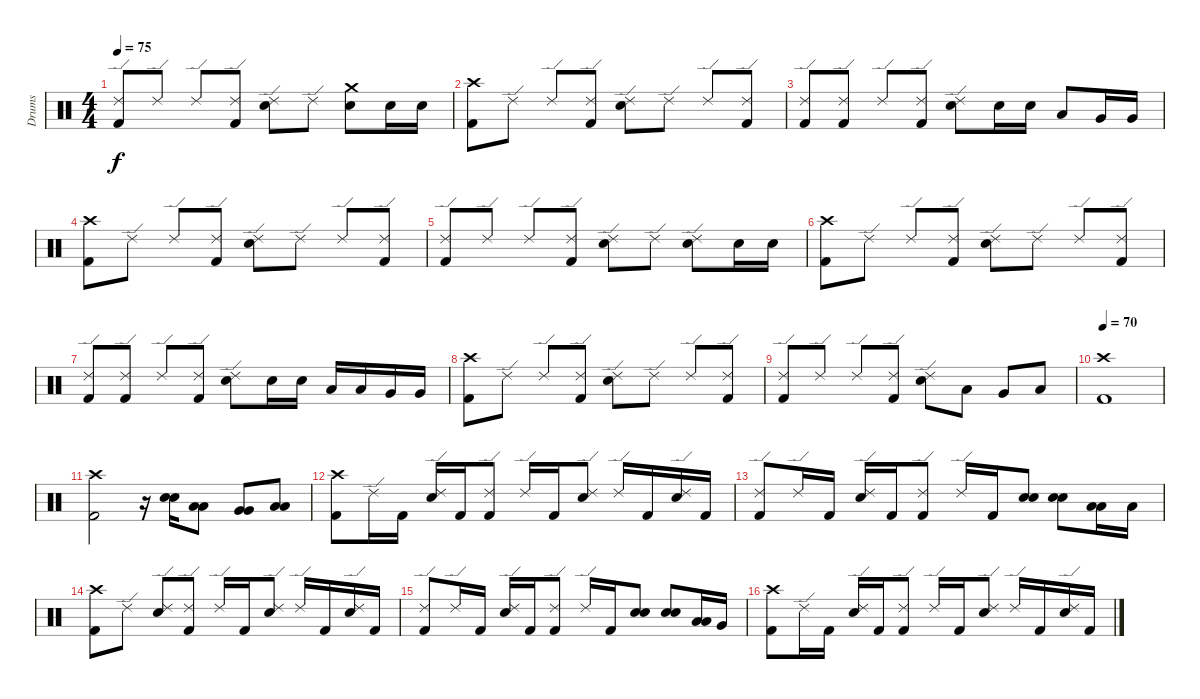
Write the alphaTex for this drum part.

\track ("Drums" "Drums") {instrument percussion}
\staff {score}
\articulation defaults
\ts (4 4)
\tempo 75
\clef neutral
\ks c
("Ride (edge) 2" "Kick (hit) 2").8{dy f} "Ride (edge) 2".8 "Ride (edge) 2".8 ("Ride (edge) 2" "Kick (hit) 2").8 ("Ride (edge) 2" "Electric Snare (hit)").8 "Ride (edge) 2".8 ("Crash medium (hit)" "Electric Snare (hit)").8 "Electric Snare (hit)".16 "Electric Snare (hit)".16 |
("Crash high (hit)" "Kick (hit) 2").8 "Ride (edge) 2".8 "Ride (edge) 2".8 ("Ride (edge) 2" "Kick (hit) 2").8 ("Ride (edge) 2" "Electric Snare (hit)").8 "Ride (edge) 2".8 "Ride (edge) 2".8 ("Ride (edge) 2" "Kick (hit) 2").8 |
("Ride (edge) 2" "Kick (hit) 2").8 ("Ride (edge) 2" "Kick (hit) 2").8 "Ride (edge) 2".8 ("Ride (edge) 2" "Kick (hit) 2").8 ("Ride (edge) 2" "Electric Snare (hit)").8 "Electric Snare (hit)".16 "Electric Snare (hit)".16 "Low Tom (hit)".8 "Very Low Tom (hit)".16 "Very Low Tom (hit)".16 |
("Crash high (hit)" "Kick (hit) 2").8 "Ride (edge) 2".8 "Ride (edge) 2".8 ("Ride (edge) 2" "Kick (hit) 2").8 ("Ride (edge) 2" "Electric Snare (hit)").8 "Ride (edge) 2".8 "Ride (edge) 2".8 ("Ride (edge) 2" "Kick (hit) 2").8 |
("Ride (edge) 2" "Kick (hit) 2").8 "Ride (edge) 2".8 "Ride (edge) 2".8 ("Ride (edge) 2" "Kick (hit) 2").8 ("Ride (edge) 2" "Electric Snare (hit)").8 "Ride (edge) 2".8 ("Ride (edge) 2" "Electric Snare (hit)").8 "Electric Snare (hit)".16 "Electric Snare (hit)".16 |
("Crash high (hit)" "Kick (hit) 2").8 "Ride (edge) 2".8 "Ride (edge) 2".8 ("Ride (edge) 2" "Kick (hit) 2").8 ("Ride (edge) 2" "Electric Snare (hit)").8 "Ride (edge) 2".8 "Ride (edge) 2".8 ("Ride (edge) 2" "Kick (hit) 2").8 |
("Ride (edge) 2" "Kick (hit) 2").8 ("Ride (edge) 2" "Kick (hit) 2").8 "Ride (edge) 2".8 ("Ride (edge) 2" "Kick (hit) 2").8 ("Ride (edge) 2" "Electric Snare (hit)").8 "Electric Snare (hit)".16 "Electric Snare (hit)".16 "Low Tom (hit)".16 "Low Tom (hit)".16 "Very Low Tom (hit)".16 "Very Low Tom (hit)".16 |
("Crash high (hit)" "Kick (hit) 2").8 "Ride (edge) 2".8 "Ride (edge) 2".8 ("Ride (edge) 2" "Kick (hit) 2").8 ("Ride (edge) 2" "Electric Snare (hit)").8 "Ride (edge) 2".8 "Ride (edge) 2".8 ("Ride (edge) 2" "Kick (hit) 2").8 |
("Ride (edge) 2" "Kick (hit) 2").8 "Ride (edge) 2".8 "Ride (edge) 2".8 ("Ride (edge) 2" "Kick (hit) 2").8 ("Ride (edge) 2" "Electric Snare (hit)").8 "Low Tom (hit)".8 "Very Low Tom (hit)".8 "Low Floor Tom (hit)".8 |
\tempo 70
("Crash high (hit)" "Kick (hit) 2").1 |
("Crash high (hit)" "Kick (hit) 2").2 r.16 ("Electric Snare (hit)" "Electric Snare (hit)").16{bu 60} ("Low Tom (hit)" "Low Tom (hit)").8{bu 60} ("Very Low Tom (hit)" "Very Low Tom (hit)").8{bu 60} ("Low Floor Tom (hit)" "Low Floor Tom (hit)").8{bu 60} |
("Crash high (hit)" "Kick (hit) 2").8 "Ride (edge) 2".16 "Kick (hit) 2".16 ("Ride (edge) 2" "Electric Snare (hit)").16 "Kick (hit) 2".16 ("Ride (edge) 2" "Kick (hit) 2").8 "Ride (edge) 2".16 "Kick (hit) 2".16 ("Ride (edge) 2" "Electric Snare (hit)").8 "Ride (edge) 2".16 "Kick (hit) 2".16 ("Ride (edge) 2" "Electric Snare (hit)").16 "Kick (hit) 2".16 |
("Ride (edge) 2" "Kick (hit) 2").8 "Ride (edge) 2".16 "Kick (hit) 2".16 ("Ride (edge) 2" "Electric Snare (hit)").16 "Kick (hit) 2".16 ("Ride (edge) 2" "Kick (hit) 2").8 "Ride (edge) 2".16 "Kick (hit) 2".16 ("Electric Snare (hit)" "Electric Snare (hit)").8{bu 60} ("Electric Snare (hit)" "Electric Snare (hit)").8{bu 60} ("Low Tom (hit)" "Low Tom (hit)").16{bu 60} "Low Tom (hit)".16 |
("Crash high (hit)" "Kick (hit) 2").8 "Ride (edge) 2".8 ("Ride (edge) 2" "Electric Snare (hit)").8 ("Ride (edge) 2" "Kick (hit) 2").8 "Ride (edge) 2".16 "Kick (hit) 2".16 ("Ride (edge) 2" "Electric Snare (hit)").8 "Ride (edge) 2".16 "Kick (hit) 2".16 ("Ride (edge) 2" "Electric Snare (hit)").16 "Kick (hit) 2".16 |
("Ride (edge) 2" "Kick (hit) 2").8 "Ride (edge) 2".16 "Kick (hit) 2".16 ("Ride (edge) 2" "Electric Snare (hit)").16 "Kick (hit) 2".16 ("Ride (edge) 2" "Kick (hit) 2").8 "Ride (edge) 2".16 "Kick (hit) 2".16 ("Electric Snare (hit)" "Electric Snare (hit)").8{bu 60} ("Electric Snare (hit)" "Electric Snare (hit)").8{bu 60} ("Low Tom (hit)" "Low Tom (hit)").16{bu 60} "Very Low Tom (hit)".16 |
("Crash high (hit)" "Kick (hit) 2").8 "Ride (edge) 2".16 "Kick (hit) 2".16 ("Ride (edge) 2" "Electric Snare (hit)").16 "Kick (hit) 2".16 ("Ride (edge) 2" "Kick (hit) 2").8 "Ride (edge) 2".16 "Kick (hit) 2".16 ("Ride (edge) 2" "Electric Snare (hit)").8 "Ride (edge) 2".16 "Kick (hit) 2".16 ("Ride (edge) 2" "Electric Snare (hit)").16 "Kick (hit) 2".16
